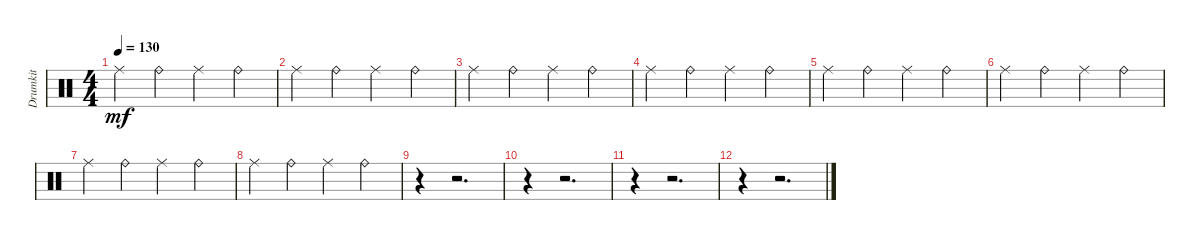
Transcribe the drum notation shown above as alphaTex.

\track ("Drumkit" "Drumkit") {instrument percussion}
\staff {score}
\articulation defaults
\ts (4 4)
\tempo 130
\clef neutral
\ks c "Ride (middle)".4{dy mf} "Ride (bell)".4 "Ride (middle)".4 "Ride (bell)".4
|
"Ride (middle)".4 "Ride (bell)".4 "Ride (middle)".4 "Ride (bell)".4 |
"Ride (middle)".4 "Ride (bell)".4 "Ride (middle)".4 "Ride (bell)".4 |
"Ride (middle)".4 "Ride (bell)".4 "Ride (middle)".4 "Ride (bell)".4 |
"Ride (middle)".4 "Ride (bell)".4 "Ride (middle)".4 "Ride (bell)".4 |
"Ride (middle)".4 "Ride (bell)".4 "Ride (middle)".4 "Ride (bell)".4 |
"Ride (middle)".4 "Ride (bell)".4 "Ride (middle)".4 "Ride (bell)".4 |
"Ride (middle)".4 "Ride (bell)".4 "Ride (middle)".4 "Ride (bell)".4 |
r.4 r.2{d} |
r.4 r.2{d} |
r.4 r.2{d} |
r.4 r.2{d}
